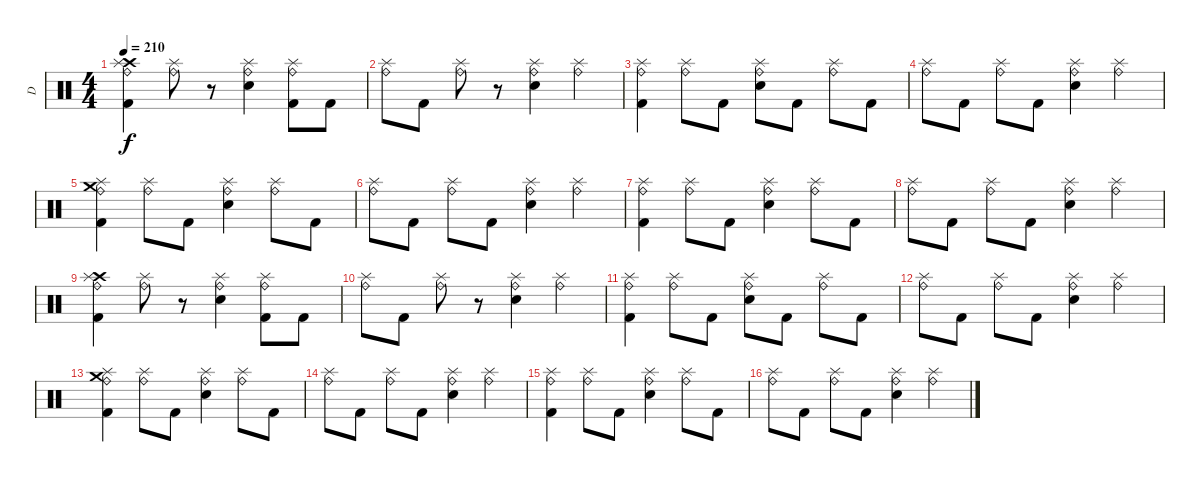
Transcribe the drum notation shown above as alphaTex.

\track ("D" "D") {instrument percussion}
\staff {score}
\articulation defaults
\ts (4 4)
\tempo 210
\clef neutral
\ks c
("Crash high (hit)" "Kick (hit) 2" "Ride (bell)" "Splash (hit)").4{dy f} ("Ride (bell)" "Splash (hit)").8 r.8 ("Electric Snare (hit)" "Ride (bell)" "Splash (hit)").4 ("Kick (hit) 2" "Ride (bell)" "Splash (hit)").8 "Kick (hit) 2".8 |
("Ride (bell)" "Splash (hit)").8 "Kick (hit) 2".8 ("Ride (bell)" "Splash (hit)").8 r.8 ("Electric Snare (hit)" "Ride (bell)" "Splash (hit)").4 ("Ride (bell)" "Splash (hit)").4 |
("Kick (hit) 2" "Ride (bell)" "Splash (hit)").4 ("Ride (bell)" "Splash (hit)").8 "Kick (hit) 2".8 ("Electric Snare (hit)" "Ride (bell)" "Splash (hit)").8 "Kick (hit) 2".8 ("Ride (bell)" "Splash (hit)").8 "Kick (hit) 2".8 |
("Ride (bell)" "Splash (hit)").8 "Kick (hit) 2".8 ("Ride (bell)" "Splash (hit)").8 "Kick (hit) 2".8 ("Electric Snare (hit)" "Ride (bell)" "Splash (hit)").4 ("Ride (bell)" "Splash (hit)").4 |
("Crash medium (hit)" "Kick (hit) 2" "Ride (bell)" "Splash (hit)").4 ("Ride (bell)" "Splash (hit)").8 "Kick (hit) 2".8 ("Electric Snare (hit)" "Ride (bell)" "Splash (hit)").4 ("Ride (bell)" "Splash (hit)").8 "Kick (hit) 2".8 |
("Ride (bell)" "Splash (hit)").8 "Kick (hit) 2".8 ("Ride (bell)" "Splash (hit)").8 "Kick (hit) 2".8 ("Electric Snare (hit)" "Ride (bell)" "Splash (hit)").4 ("Ride (bell)" "Splash (hit)").4 |
("Kick (hit) 2" "Ride (bell)" "Splash (hit)").4 ("Ride (bell)" "Splash (hit)").8 "Kick (hit) 2".8 ("Electric Snare (hit)" "Ride (bell)" "Splash (hit)").4 ("Ride (bell)" "Splash (hit)").8 "Kick (hit) 2".8 |
("Ride (bell)" "Splash (hit)").8 "Kick (hit) 2".8 ("Ride (bell)" "Splash (hit)").8 "Kick (hit) 2".8 ("Electric Snare (hit)" "Ride (bell)" "Splash (hit)").4 ("Ride (bell)" "Splash (hit)").4 |
("Crash high (hit)" "Kick (hit) 2" "Ride (bell)" "Splash (hit)").4 ("Ride (bell)" "Splash (hit)").8 r.8 ("Electric Snare (hit)" "Ride (bell)" "Splash (hit)").4 ("Kick (hit) 2" "Ride (bell)" "Splash (hit)").8 "Kick (hit) 2".8 |
("Ride (bell)" "Splash (hit)").8 "Kick (hit) 2".8 ("Ride (bell)" "Splash (hit)").8 r.8 ("Electric Snare (hit)" "Ride (bell)" "Splash (hit)").4 ("Ride (bell)" "Splash (hit)").4 |
("Kick (hit) 2" "Ride (bell)" "Splash (hit)").4 ("Ride (bell)" "Splash (hit)").8 "Kick (hit) 2".8 ("Electric Snare (hit)" "Ride (bell)" "Splash (hit)").8 "Kick (hit) 2".8 ("Ride (bell)" "Splash (hit)").8 "Kick (hit) 2".8 |
("Ride (bell)" "Splash (hit)").8 "Kick (hit) 2".8 ("Ride (bell)" "Splash (hit)").8 "Kick (hit) 2".8 ("Electric Snare (hit)" "Ride (bell)" "Splash (hit)").4 ("Ride (bell)" "Splash (hit)").4 |
("Crash medium (hit)" "Kick (hit) 2" "Ride (bell)" "Splash (hit)").4 ("Ride (bell)" "Splash (hit)").8 "Kick (hit) 2".8 ("Electric Snare (hit)" "Ride (bell)" "Splash (hit)").4 ("Ride (bell)" "Splash (hit)").8 "Kick (hit) 2".8 |
("Ride (bell)" "Splash (hit)").8 "Kick (hit) 2".8 ("Ride (bell)" "Splash (hit)").8 "Kick (hit) 2".8 ("Electric Snare (hit)" "Ride (bell)" "Splash (hit)").4 ("Ride (bell)" "Splash (hit)").4 |
("Kick (hit) 2" "Ride (bell)" "Splash (hit)").4 ("Ride (bell)" "Splash (hit)").8 "Kick (hit) 2".8 ("Electric Snare (hit)" "Ride (bell)" "Splash (hit)").4 ("Ride (bell)" "Splash (hit)").8 "Kick (hit) 2".8 |
("Ride (bell)" "Splash (hit)").8 "Kick (hit) 2".8 ("Ride (bell)" "Splash (hit)").8 "Kick (hit) 2".8 ("Electric Snare (hit)" "Ride (bell)" "Splash (hit)").4 ("Ride (bell)" "Splash (hit)").4
